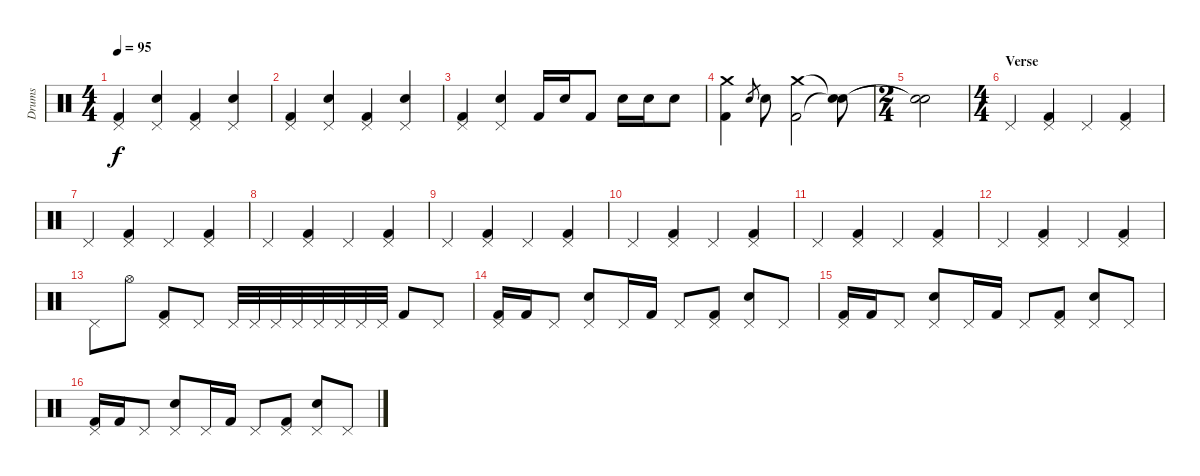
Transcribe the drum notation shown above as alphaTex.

\track ("Drums" "Drums") {instrument percussion}
\staff {score}
\articulation defaults
\ts (4 4)
\tempo 95
\clef neutral
\ks c
("Pedal Hi-Hat (hit)" "Kick (hit) 2").4{dy f} ("Pedal Hi-Hat (hit)" "Electric Snare (hit)").4 ("Pedal Hi-Hat (hit)" "Kick (hit) 2").4 ("Pedal Hi-Hat (hit)" "Electric Snare (hit)").4 |
("Pedal Hi-Hat (hit)" "Kick (hit) 2").4 ("Pedal Hi-Hat (hit)" "Electric Snare (hit)").4 ("Pedal Hi-Hat (hit)" "Kick (hit) 2").4 ("Pedal Hi-Hat (hit)" "Electric Snare (hit)").4 |
("Pedal Hi-Hat (hit)" "Kick (hit) 2").4 ("Pedal Hi-Hat (hit)" "Electric Snare (hit)").4 "Kick (hit) 2".16 "Electric Snare (hit)".16 "Kick (hit) 2".8 "Electric Snare (hit)".16 "Electric Snare (hit)".16 "Electric Snare (hit)".8 |
("Crash medium (hit)" "Kick (hit) 2").4 "Electric Snare (hit)".8{gr} "Electric Snare (hit)".8 ("Crash medium (hit)" "Kick (hit) 2").2 ("Snare (hit)"{t} "Snare (hit)"{t}).8 |
\ts (2 4)
("Snare (hit)"{t} "Snare (hit)"{t}).2 |
\ts (4 4)
\section ("" "Verse")
"Pedal Hi-Hat (hit)".4 ("Pedal Hi-Hat (hit)" "Kick (hit) 2").4 "Pedal Hi-Hat (hit)".4 ("Pedal Hi-Hat (hit)" "Kick (hit) 2").4 |
"Pedal Hi-Hat (hit)".4 ("Pedal Hi-Hat (hit)" "Kick (hit) 2").4 "Pedal Hi-Hat (hit)".4 ("Pedal Hi-Hat (hit)" "Kick (hit) 2").4 |
"Pedal Hi-Hat (hit)".4 ("Pedal Hi-Hat (hit)" "Kick (hit) 2").4 "Pedal Hi-Hat (hit)".4 ("Pedal Hi-Hat (hit)" "Kick (hit) 2").4 |
"Pedal Hi-Hat (hit)".4 ("Pedal Hi-Hat (hit)" "Kick (hit) 2").4 "Pedal Hi-Hat (hit)".4 ("Pedal Hi-Hat (hit)" "Kick (hit) 2").4 |
"Pedal Hi-Hat (hit)".4 ("Pedal Hi-Hat (hit)" "Kick (hit) 2").4 "Pedal Hi-Hat (hit)".4 ("Pedal Hi-Hat (hit)" "Kick (hit) 2").4 |
"Pedal Hi-Hat (hit)".4 ("Pedal Hi-Hat (hit)" "Kick (hit) 2").4 "Pedal Hi-Hat (hit)".4 ("Pedal Hi-Hat (hit)" "Kick (hit) 2").4 |
"Pedal Hi-Hat (hit)".4 ("Pedal Hi-Hat (hit)" "Kick (hit) 2").4 "Pedal Hi-Hat (hit)".4 ("Pedal Hi-Hat (hit)" "Kick (hit) 2").4 |
"Pedal Hi-Hat (hit)".8 "Hi-Hat (open)".8 ("Pedal Hi-Hat (hit)" "Kick (hit) 2").8 "Pedal Hi-Hat (hit)".8 "Pedal Hi-Hat (hit)".32 "Pedal Hi-Hat (hit)".32 "Pedal Hi-Hat (hit)".32 "Pedal Hi-Hat (hit)".32 "Pedal Hi-Hat (hit)".32 "Pedal Hi-Hat (hit)".32 "Pedal Hi-Hat (hit)".32 "Pedal Hi-Hat (hit)".32 "Kick (hit) 2".8 "Pedal Hi-Hat (hit)".8 |
("Pedal Hi-Hat (hit)" "Kick (hit) 2").16 "Kick (hit) 2".16 "Pedal Hi-Hat (hit)".8 ("Pedal Hi-Hat (hit)" "Electric Snare (hit)").8 "Pedal Hi-Hat (hit)".16 "Kick (hit) 2".16 "Pedal Hi-Hat (hit)".8 ("Pedal Hi-Hat (hit)" "Kick (hit) 2").8 ("Pedal Hi-Hat (hit)" "Electric Snare (hit)").8 "Pedal Hi-Hat (hit)".8 |
("Pedal Hi-Hat (hit)" "Kick (hit) 2").16 "Kick (hit) 2".16 "Pedal Hi-Hat (hit)".8 ("Pedal Hi-Hat (hit)" "Electric Snare (hit)").8 "Pedal Hi-Hat (hit)".16 "Kick (hit) 2".16 "Pedal Hi-Hat (hit)".8 ("Pedal Hi-Hat (hit)" "Kick (hit) 2").8 ("Pedal Hi-Hat (hit)" "Electric Snare (hit)").8 "Pedal Hi-Hat (hit)".8 |
("Pedal Hi-Hat (hit)" "Kick (hit) 2").16 "Kick (hit) 2".16 "Pedal Hi-Hat (hit)".8 ("Pedal Hi-Hat (hit)" "Electric Snare (hit)").8 "Pedal Hi-Hat (hit)".16 "Kick (hit) 2".16 "Pedal Hi-Hat (hit)".8 ("Pedal Hi-Hat (hit)" "Kick (hit) 2").8 ("Pedal Hi-Hat (hit)" "Electric Snare (hit)").8 "Pedal Hi-Hat (hit)".8
